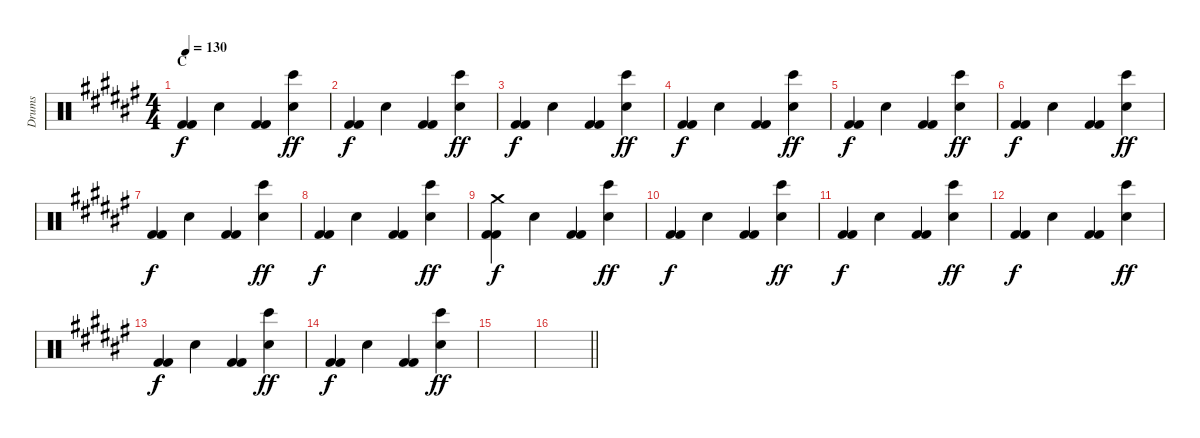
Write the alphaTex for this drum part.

\track ("Drums" "Drums") {instrument percussion}
\staff {score}
\articulation defaults
\ts (4 4)
\section ("" "C")
\tempo 130
\clef neutral
\ks d#minor
("Kick (hit) 2" "Kick (hit) 2").4{dy f} "Snare (hit) 2".4 ("Kick (hit) 2" "Kick (hit) 2").4 ("Bongo High (hit)" "Snare (hit) 2").4{dy ff} |
("Kick (hit) 2" "Kick (hit) 2").4{dy f} "Snare (hit) 2".4 ("Kick (hit) 2" "Kick (hit) 2").4 ("Bongo High (hit)" "Snare (hit) 2").4{dy ff} |
("Kick (hit) 2" "Kick (hit) 2").4{dy f} "Snare (hit) 2".4 ("Kick (hit) 2" "Kick (hit) 2").4 ("Bongo High (hit)" "Snare (hit) 2").4{dy ff} |
("Kick (hit) 2" "Kick (hit) 2").4{dy f} "Snare (hit) 2".4 ("Kick (hit) 2" "Kick (hit) 2").4 ("Bongo High (hit)" "Snare (hit) 2").4{dy ff} |
("Kick (hit) 2" "Kick (hit) 2").4{dy f} "Snare (hit) 2".4 ("Kick (hit) 2" "Kick (hit) 2").4 ("Bongo High (hit)" "Snare (hit) 2").4{dy ff} |
("Kick (hit) 2" "Kick (hit) 2").4{dy f} "Snare (hit) 2".4 ("Kick (hit) 2" "Kick (hit) 2").4 ("Bongo High (hit)" "Snare (hit) 2").4{dy ff} |
("Kick (hit) 2" "Kick (hit) 2").4{dy f} "Snare (hit) 2".4 ("Kick (hit) 2" "Kick (hit) 2").4 ("Bongo High (hit)" "Snare (hit) 2").4{dy ff} |
("Kick (hit) 2" "Kick (hit) 2").4{dy f} "Snare (hit) 2".4 ("Kick (hit) 2" "Kick (hit) 2").4 ("Bongo High (hit)" "Snare (hit) 2").4{dy ff} |
("Crash medium (hit)" "Kick (hit) 2" "Kick (hit) 2").4{dy f} "Snare (hit) 2".4 ("Kick (hit) 2" "Kick (hit) 2").4 ("Bongo High (hit)" "Snare (hit) 2").4{dy ff} |
("Kick (hit) 2" "Kick (hit) 2").4{dy f} "Snare (hit) 2".4 ("Kick (hit) 2" "Kick (hit) 2").4 ("Bongo High (hit)" "Snare (hit) 2").4{dy ff} |
("Kick (hit) 2" "Kick (hit) 2").4{dy f} "Snare (hit) 2".4 ("Kick (hit) 2" "Kick (hit) 2").4 ("Bongo High (hit)" "Snare (hit) 2").4{dy ff} |
("Kick (hit) 2" "Kick (hit) 2").4{dy f} "Snare (hit) 2".4 ("Kick (hit) 2" "Kick (hit) 2").4 ("Bongo High (hit)" "Snare (hit) 2").4{dy ff} |
("Kick (hit) 2" "Kick (hit) 2").4{dy f} "Snare (hit) 2".4 ("Kick (hit) 2" "Kick (hit) 2").4 ("Bongo High (hit)" "Snare (hit) 2").4{dy ff} |
("Kick (hit) 2" "Kick (hit) 2").4{dy f} "Snare (hit) 2".4 ("Kick (hit) 2" "Kick (hit) 2").4 ("Bongo High (hit)" "Snare (hit) 2").4{dy ff} |
|
\barLineRight lightlight
